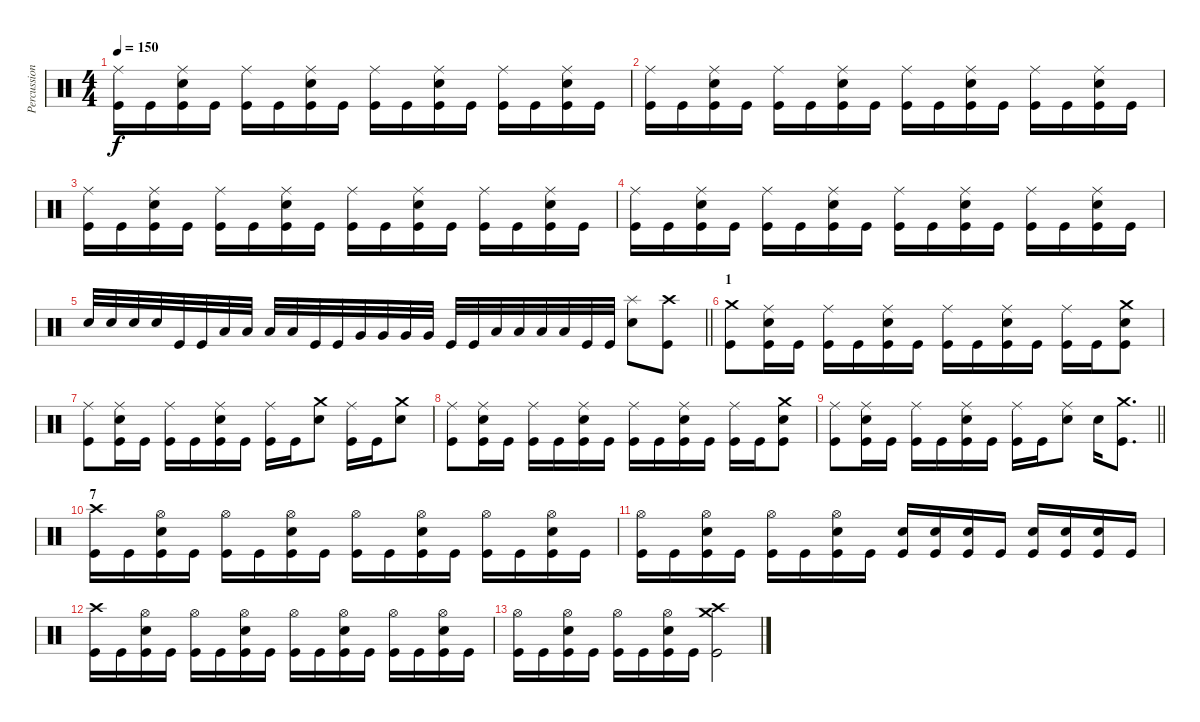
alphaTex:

\track ("Percussion" "Percussion") {instrument percussion}
\staff {score}
\articulation defaults
\ts (4 4)
\tempo 150
\clef neutral
\ks c
("Ride (middle)" "Kick (hit)").16{dy f} "Kick (hit)".16 ("Ride (middle)" "Snare (hit) 2" "Kick (hit)").16 "Kick (hit)".16 ("Ride (middle)" "Kick (hit)").16 "Kick (hit)".16 ("Ride (middle)" "Snare (hit) 2" "Kick (hit)").16 "Kick (hit)".16 ("Ride (middle)" "Kick (hit)").16 "Kick (hit)".16 ("Ride (middle)" "Snare (hit) 2" "Kick (hit)").16 "Kick (hit)".16 ("Ride (middle)" "Kick (hit)").16 "Kick (hit)".16 ("Ride (middle)" "Snare (hit) 2" "Kick (hit)").16 "Kick (hit)".16 |
("Ride (middle)" "Kick (hit)").16 "Kick (hit)".16 ("Ride (middle)" "Snare (hit) 2" "Kick (hit)").16 "Kick (hit)".16 ("Ride (middle)" "Kick (hit)").16 "Kick (hit)".16 ("Ride (middle)" "Snare (hit) 2" "Kick (hit)").16 "Kick (hit)".16 ("Ride (middle)" "Kick (hit)").16 "Kick (hit)".16 ("Ride (middle)" "Snare (hit) 2" "Kick (hit)").16 "Kick (hit)".16 ("Ride (middle)" "Kick (hit)").16 "Kick (hit)".16 ("Ride (middle)" "Snare (hit) 2" "Kick (hit)").16 "Kick (hit)".16 |
("Ride (middle)" "Kick (hit)").16 "Kick (hit)".16 ("Ride (middle)" "Snare (hit) 2" "Kick (hit)").16 "Kick (hit)".16 ("Ride (middle)" "Kick (hit)").16 "Kick (hit)".16 ("Ride (middle)" "Snare (hit) 2" "Kick (hit)").16 "Kick (hit)".16 ("Ride (middle)" "Kick (hit)").16 "Kick (hit)".16 ("Ride (middle)" "Snare (hit) 2" "Kick (hit)").16 "Kick (hit)".16 ("Ride (middle)" "Kick (hit)").16 "Kick (hit)".16 ("Ride (middle)" "Snare (hit) 2" "Kick (hit)").16 "Kick (hit)".16 |
("Ride (middle)" "Kick (hit)").16 "Kick (hit)".16 ("Ride (middle)" "Snare (hit) 2" "Kick (hit)").16 "Kick (hit)".16 ("Ride (middle)" "Kick (hit)").16 "Kick (hit)".16 ("Ride (middle)" "Snare (hit) 2" "Kick (hit)").16 "Kick (hit)".16 ("Ride (middle)" "Kick (hit)").16 "Kick (hit)".16 ("Ride (middle)" "Snare (hit) 2" "Kick (hit)").16 "Kick (hit)".16 ("Ride (middle)" "Kick (hit)").16 "Kick (hit)".16 ("Ride (middle)" "Snare (hit) 2" "Kick (hit)").16 "Kick (hit)".16 |
\barLineRight lightlight "Snare (hit) 2".32 "Snare (hit) 2".32 "Snare (hit) 2".32 "Snare (hit) 2".32 "Kick (hit)".32 "Kick (hit)".32 "Low Tom (hit)".32 "Low Tom (hit)".32 "Low Tom (hit)".32 "Low Tom (hit)".32 "Kick (hit)".32 "Kick (hit)".32 "Very Low Tom (hit)".32 "Very Low Tom (hit)".32 "Very Low Tom (hit)".32 "Very Low Tom (hit)".32 "Kick (hit)".32 "Kick (hit)".32 "Low Floor Tom (hit)".32 "Low Floor Tom (hit)".32 "Low Floor Tom (hit)".32 "Low Floor Tom (hit)".32 "Kick (hit)".32 "Kick (hit)".32
("Splash (hit)" "Snare (hit) 2").8 ("Crash high (hit)" "Kick (hit)").8 |
\section ("" "1")
("Crash medium (hit)" "Kick (hit)").8 ("Ride (middle)" "Snare (hit) 2" "Kick (hit)").16 "Kick (hit)".16 ("Ride (middle)" "Kick (hit)").16 "Kick (hit)".16 ("Ride (middle)" "Snare (hit) 2" "Kick (hit)").16 "Kick (hit)".16 ("Ride (middle)" "Kick (hit)").16 "Kick (hit)".16 ("Ride (middle)" "Snare (hit) 2" "Kick (hit)").16 "Kick (hit)".16 ("Ride (middle)" "Kick (hit)").16 "Kick (hit)".16 ("Crash medium (hit)" "Snare (hit) 2" "Kick (hit)").8 |
("Ride (middle)" "Kick (hit)").8 ("Ride (middle)" "Snare (hit) 2" "Kick (hit)").16 "Kick (hit)".16 ("Ride (middle)" "Kick (hit)").16 "Kick (hit)".16 ("Ride (middle)" "Snare (hit) 2" "Kick (hit)").16 "Kick (hit)".16 ("Ride (middle)" "Kick (hit)").16 "Kick (hit)".16 ("Crash medium (hit)" "Snare (hit) 2").8 ("Ride (middle)" "Kick (hit)").16 "Kick (hit)".16 ("Crash medium (hit)" "Snare (hit) 2").8 |
("Ride (middle)" "Kick (hit)").8 ("Ride (middle)" "Snare (hit) 2" "Kick (hit)").16 "Kick (hit)".16 ("Ride (middle)" "Kick (hit)").16 "Kick (hit)".16 ("Ride (middle)" "Snare (hit) 2" "Kick (hit)").16 "Kick (hit)".16 ("Ride (middle)" "Kick (hit)").16 "Kick (hit)".16 ("Ride (middle)" "Snare (hit) 2" "Kick (hit)").16 "Kick (hit)".16 ("Ride (middle)" "Kick (hit)").16 "Kick (hit)".16 ("Crash medium (hit)" "Snare (hit) 2" "Kick (hit)").8 |
\barLineRight lightlight
("Ride (middle)" "Kick (hit)").8 ("Ride (middle)" "Snare (hit) 2" "Kick (hit)").16 "Kick (hit)".16 ("Ride (middle)" "Kick (hit)").16 "Kick (hit)".16 ("Ride (middle)" "Snare (hit) 2" "Kick (hit)").16 "Kick (hit)".16 ("Ride (middle)" "Kick (hit)").16 "Kick (hit)".16 ("Ride (middle)" "Snare (hit) 2").8 "Snare (hit) 2".16 ("Crash medium (hit)" "Kick (hit)").8{d} |
\section ("" "7")
("Crash high (hit)" "Kick (hit)").16 "Kick (hit)".16 ("Hi-Hat (open)" "Snare (hit) 2" "Kick (hit)").16 "Kick (hit)".16 ("Hi-Hat (open)" "Kick (hit)").16 "Kick (hit)".16 ("Hi-Hat (open)" "Snare (hit) 2" "Kick (hit)").16 "Kick (hit)".16 ("Hi-Hat (open)" "Kick (hit)").16 "Kick (hit)".16 ("Hi-Hat (open)" "Snare (hit) 2" "Kick (hit)").16 "Kick (hit)".16 ("Hi-Hat (open)" "Kick (hit)").16 "Kick (hit)".16 ("Hi-Hat (open)" "Snare (hit) 2" "Kick (hit)").16 "Kick (hit)".16 |
("Hi-Hat (open)" "Kick (hit)").16 "Kick (hit)".16 ("Hi-Hat (open)" "Snare (hit) 2" "Kick (hit)").16 "Kick (hit)".16 ("Hi-Hat (open)" "Kick (hit)").16 "Kick (hit)".16 ("Hi-Hat (open)" "Snare (hit) 2" "Kick (hit)").16 "Kick (hit)".16 ("Snare (hit) 2" "Kick (hit)").16 ("Snare (hit) 2" "Kick (hit)").16 ("Snare (hit) 2" "Kick (hit)").16 "Kick (hit)".16 ("Snare (hit) 2" "Kick (hit)").16 ("Snare (hit) 2" "Kick (hit)").16 ("Snare (hit) 2" "Kick (hit)").16 "Kick (hit)".16 |
("Crash high (hit)" "Kick (hit)").16 "Kick (hit)".16 ("Hi-Hat (open)" "Snare (hit) 2" "Kick (hit)").16 "Kick (hit)".16 ("Hi-Hat (open)" "Kick (hit)").16 "Kick (hit)".16 ("Hi-Hat (open)" "Snare (hit) 2" "Kick (hit)").16 "Kick (hit)".16 ("Hi-Hat (open)" "Kick (hit)").16 "Kick (hit)".16 ("Hi-Hat (open)" "Snare (hit) 2" "Kick (hit)").16 "Kick (hit)".16 ("Hi-Hat (open)" "Kick (hit)").16 "Kick (hit)".16 ("Hi-Hat (open)" "Snare (hit) 2" "Kick (hit)").16 "Kick (hit)".16 |
("Hi-Hat (open)" "Kick (hit)").16 "Kick (hit)".16 ("Hi-Hat (open)" "Snare (hit) 2" "Kick (hit)").16 "Kick (hit)".16 ("Hi-Hat (open)" "Kick (hit)").16 "Kick (hit)".16 ("Hi-Hat (open)" "Snare (hit) 2" "Kick (hit)").16 "Kick (hit)".16 ("Crash high (hit)" "Crash medium (hit)" "Kick (hit)").2
